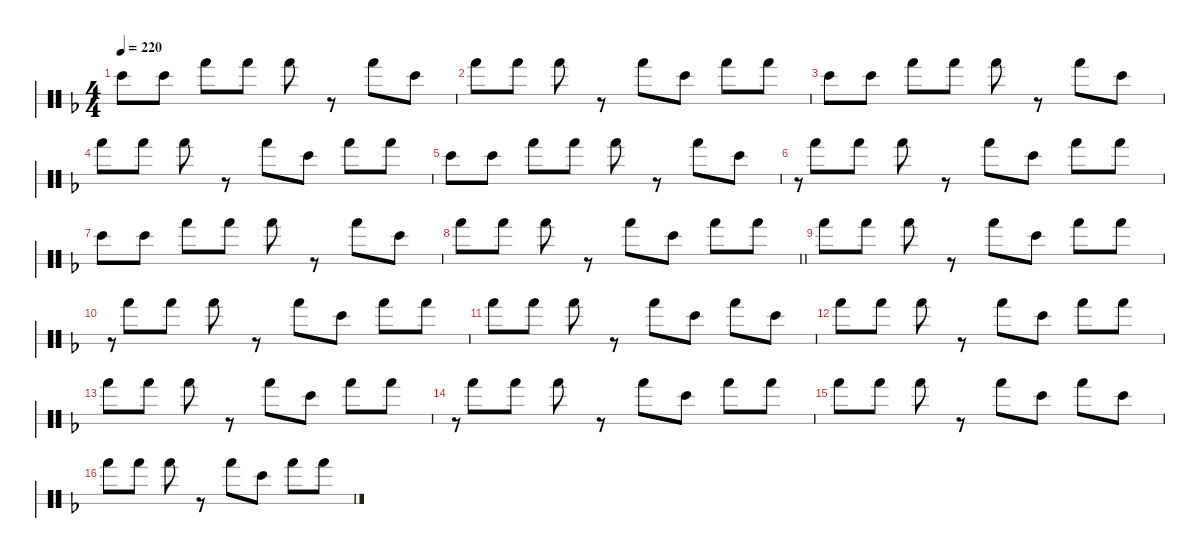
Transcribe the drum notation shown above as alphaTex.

\hideDynamics
\bracketExtendMode nobrackets
\singleTrackTrackNamePolicy hidden
\multiTrackTrackNamePolicy hidden
\firstSystemTrackNameMode fullname
\firstSystemTrackNameOrientation horizontal
\otherSystemsTrackNameOrientation horizontal
\track ("Bongos" "bngKit") {instrument percussion}
\staff {score 2}
\articulation defaults
\ts (4 4)
\tempo 220
\clef neutral
\ks dminor "Bongo High (hit)"{acc forcenatural}.8{dy mp} "Bongo High (hit)"{acc forcenatural}.8 "Hand (hit)"{acc forcenatural}.8{dy p} "Hand (hit)"{acc forcenatural}.8 "Hand (hit)"{acc forcenatural}.8{dy mp}
r.8 "Hand (hit)"{acc forcenatural}.8 "Bongo High (hit)"{acc forcenatural}.8 |
"Hand (hit)"{acc forcenatural}.8{dy p} "Hand (hit)"{acc forcenatural}.8 "Hand (hit)"{acc forcenatural}.8{dy mp} r.8 "Hand (hit)"{acc forcenatural}.8 "Bongo High (hit)"{acc forcenatural}.8 "Hand (hit)"{acc forcenatural}.8{dy p} "Hand (hit)"{acc forcenatural}.8 |
"Bongo High (hit)"{acc forcenatural}.8{dy mp} "Bongo High (hit)"{acc forcenatural}.8 "Hand (hit)"{acc forcenatural}.8{dy p} "Hand (hit)"{acc forcenatural}.8 "Hand (hit)"{acc forcenatural}.8{dy mp} r.8 "Hand (hit)"{acc forcenatural}.8 "Bongo High (hit)"{acc forcenatural}.8 |
"Hand (hit)"{acc forcenatural}.8{dy p} "Hand (hit)"{acc forcenatural}.8 "Hand (hit)"{acc forcenatural}.8{dy mp} r.8 "Hand (hit)"{acc forcenatural}.8 "Bongo High (hit)"{acc forcenatural}.8 "Hand (hit)"{acc forcenatural}.8{dy p} "Hand (hit)"{acc forcenatural}.8 |
"Bongo High (hit)"{acc forcenatural}.8{dy mp} "Bongo High (hit)"{acc forcenatural}.8 "Hand (hit)"{acc forcenatural}.8{dy p} "Hand (hit)"{acc forcenatural}.8 "Hand (hit)"{acc forcenatural}.8{dy mp} r.8 "Hand (hit)"{acc forcenatural}.8 "Bongo High (hit)"{acc forcenatural}.8 |
r.8{gr} "Hand (hit)"{acc forcenatural}.8{dy p} "Hand (hit)"{acc forcenatural}.8 "Hand (hit)"{acc forcenatural}.8{dy mp} r.8 "Hand (hit)"{acc forcenatural}.8 "Bongo High (hit)"{acc forcenatural}.8 "Hand (hit)"{acc forcenatural}.8{dy p} "Hand (hit)"{acc forcenatural}.8 |
"Bongo High (hit)"{acc forcenatural}.8{dy mp} "Bongo High (hit)"{acc forcenatural}.8 "Hand (hit)"{acc forcenatural}.8{dy p} "Hand (hit)"{acc forcenatural}.8 "Hand (hit)"{acc forcenatural}.8{dy mp} r.8 "Hand (hit)"{acc forcenatural}.8 "Bongo High (hit)"{acc forcenatural}.8 |
\barLineRight lightlight "Hand (hit)"{acc forcenatural}.8{dy p} "Hand (hit)"{acc forcenatural}.8 "Hand (hit)"{acc forcenatural}.8{dy mp}
r.8 "Hand (hit)"{acc forcenatural}.8 "Bongo High (hit)"{acc forcenatural}.8 "Hand (hit)"{acc forcenatural}.8{dy p} "Hand (hit)"{acc forcenatural}.8 |
"Hand (hit)"{acc forcenatural}.8 "Hand (hit)"{acc forcenatural}.8 "Hand (hit)"{acc forcenatural}.8{dy mp} r.8 "Hand (hit)"{acc forcenatural}.8 "Bongo High (hit)"{acc forcenatural}.8 "Hand (hit)"{acc forcenatural}.8 "Hand (hit)"{acc forcenatural}.8{dy p} |
r.8{gr} "Hand (hit)"{acc forcenatural}.8 "Hand (hit)"{acc forcenatural}.8 "Hand (hit)"{acc forcenatural}.8{dy mp} r.8 "Hand (hit)"{acc forcenatural}.8 "Bongo High (hit)"{acc forcenatural}.8 "Hand (hit)"{acc forcenatural}.8 "Hand (hit)"{acc forcenatural}.8{dy p} |
"Hand (hit)"{acc forcenatural}.8 "Hand (hit)"{acc forcenatural}.8 "Hand (hit)"{acc forcenatural}.8{dy mp} r.8 "Hand (hit)"{acc forcenatural}.8 "Bongo High (hit)"{acc forcenatural}.8 "Hand (hit)"{acc forcenatural}.8 "Bongo High (hit)"{acc forcenatural}.8{dy p} |
"Hand (hit)"{acc forcenatural}.8{dy mp} "Hand (hit)"{acc forcenatural}.8{dy p} "Hand (hit)"{acc forcenatural}.8{dy mp} r.8 "Hand (hit)"{acc forcenatural}.8 "Bongo High (hit)"{acc forcenatural}.8 "Hand (hit)"{acc forcenatural}.8{dy p} "Hand (hit)"{acc forcenatural}.8 |
"Hand (hit)"{acc forcenatural}.8 "Hand (hit)"{acc forcenatural}.8 "Hand (hit)"{acc forcenatural}.8{dy mp} r.8 "Hand (hit)"{acc forcenatural}.8 "Bongo High (hit)"{acc forcenatural}.8 "Hand (hit)"{acc forcenatural}.8 "Hand (hit)"{acc forcenatural}.8{dy p} |
r.8{gr} "Hand (hit)"{acc forcenatural}.8 "Hand (hit)"{acc forcenatural}.8 "Hand (hit)"{acc forcenatural}.8{dy mp} r.8 "Hand (hit)"{acc forcenatural}.8 "Bongo High (hit)"{acc forcenatural}.8 "Hand (hit)"{acc forcenatural}.8 "Hand (hit)"{acc forcenatural}.8{dy p} |
"Hand (hit)"{acc forcenatural}.8 "Hand (hit)"{acc forcenatural}.8 "Hand (hit)"{acc forcenatural}.8{dy mp} r.8 "Hand (hit)"{acc forcenatural}.8 "Bongo High (hit)"{acc forcenatural}.8 "Hand (hit)"{acc forcenatural}.8 "Bongo High (hit)"{acc forcenatural}.8{dy p} |
"Hand (hit)"{acc forcenatural}.8{dy mp} "Hand (hit)"{acc forcenatural}.8{dy p} "Hand (hit)"{acc forcenatural}.8{dy mp} r.8 "Hand (hit)"{acc forcenatural}.8 "Bongo High (hit)"{acc forcenatural}.8 "Hand (hit)"{acc forcenatural}.8{dy p} "Hand (hit)"{acc forcenatural}.8
